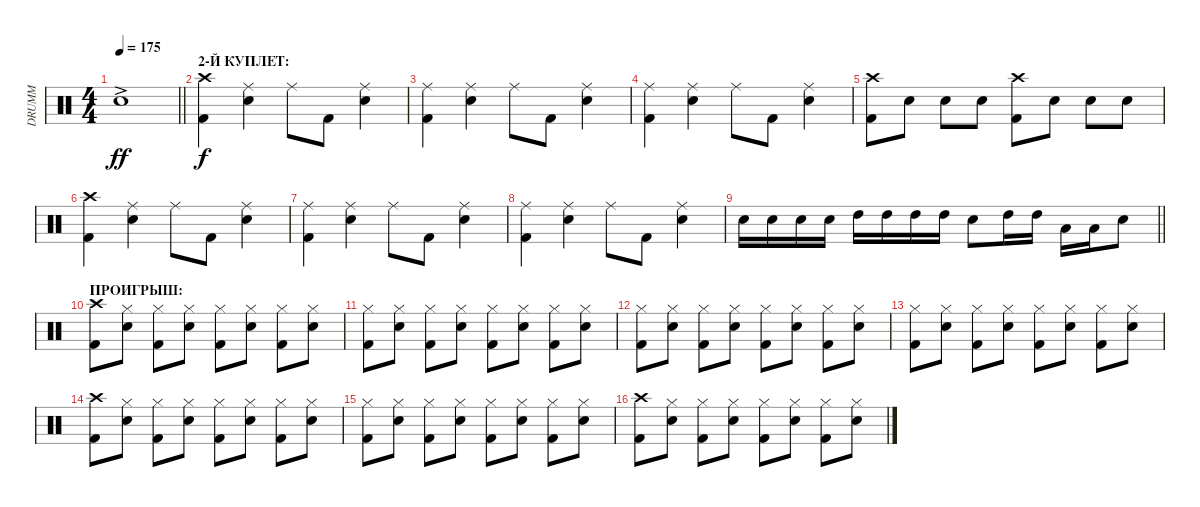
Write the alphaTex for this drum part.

\track ("DRUMM" "DRUMM") {instrument percussion}
\staff {score}
\articulation defaults
\ts (4 4)
\tempo 175
\clef neutral
\barLineRight lightlight
\ks c "Electric Snare (hit)"{ac}.1{dy ff}
|
\section ("" "2-Й КУПЛЕТ:")
("Crash high (hit)" "Kick (hit) 2").4{dy f} ("Ride (middle)" "Electric Snare (hit)").4 "Ride (middle)".8 "Kick (hit) 2".8 ("Electric Snare (hit)" "Ride (middle)").4 |
("Ride (middle)" "Kick (hit) 2").4 ("Electric Snare (hit)" "Ride (middle)").4 "Ride (middle)".8 "Kick (hit) 2".8 ("Electric Snare (hit)" "Ride (middle)").4 |
("Ride (middle)" "Kick (hit) 2").4 ("Electric Snare (hit)" "Ride (middle)").4 "Ride (middle)".8 "Kick (hit) 2".8 ("Electric Snare (hit)" "Ride (middle)").4 |
("Crash high (hit)" "Kick (hit) 2").8 "Electric Snare (hit)".8 "Electric Snare (hit)".8 "Electric Snare (hit)".8 ("Crash high (hit)" "Kick (hit) 2").8 "Electric Snare (hit)".8 "Electric Snare (hit)".8 "Electric Snare (hit)".8 |
("Crash high (hit)" "Kick (hit) 2").4 ("Ride (middle)" "Electric Snare (hit)").4 "Ride (middle)".8 "Kick (hit) 2".8 ("Electric Snare (hit)" "Ride (middle)").4 |
("Ride (middle)" "Kick (hit) 2").4 ("Electric Snare (hit)" "Ride (middle)").4 "Ride (middle)".8 "Kick (hit) 2".8 ("Electric Snare (hit)" "Ride (middle)").4 |
("Ride (middle)" "Kick (hit) 2").4 ("Electric Snare (hit)" "Ride (middle)").4 "Ride (middle)".8 "Kick (hit) 2".8 ("Electric Snare (hit)" "Ride (middle)").4 |
\barLineRight lightlight "Electric Snare (hit)".16 "Electric Snare (hit)".16 "Electric Snare (hit)".16 "Electric Snare (hit)".16 "High Tom (hit)".16 "High Tom (hit)".16 "High Tom (hit)".16 "High Tom (hit)".16 "Electric Snare (hit)".8 "High Tom (hit)".16 "High Tom (hit)".16 "Low Tom (hit)".16 "Low Tom (hit)".16 "Electric Snare (hit)".8
|
\section ("" "ПРОИГРЫШ:")
("Crash high (hit)" "Kick (hit) 2").8 ("Hi-Hat (closed)" "Electric Snare (hit)").8 ("Hi-Hat (closed)" "Kick (hit) 2").8 ("Hi-Hat (closed)" "Electric Snare (hit)").8 ("Hi-Hat (closed)" "Kick (hit) 2").8 ("Hi-Hat (closed)" "Electric Snare (hit)").8 ("Hi-Hat (closed)" "Kick (hit) 2").8 ("Hi-Hat (closed)" "Electric Snare (hit)").8 |
("Hi-Hat (closed)" "Kick (hit) 2").8 ("Hi-Hat (closed)" "Electric Snare (hit)").8 ("Hi-Hat (closed)" "Kick (hit) 2").8 ("Hi-Hat (closed)" "Electric Snare (hit)").8 ("Hi-Hat (closed)" "Kick (hit) 2").8 ("Hi-Hat (closed)" "Electric Snare (hit)").8 ("Hi-Hat (closed)" "Kick (hit) 2").8 ("Hi-Hat (closed)" "Electric Snare (hit)").8 |
("Hi-Hat (closed)" "Kick (hit) 2").8 ("Hi-Hat (closed)" "Electric Snare (hit)").8 ("Hi-Hat (closed)" "Kick (hit) 2").8 ("Hi-Hat (closed)" "Electric Snare (hit)").8 ("Hi-Hat (closed)" "Kick (hit) 2").8 ("Hi-Hat (closed)" "Electric Snare (hit)").8 ("Hi-Hat (closed)" "Kick (hit) 2").8 ("Hi-Hat (closed)" "Electric Snare (hit)").8 |
("Hi-Hat (closed)" "Kick (hit) 2").8 ("Hi-Hat (closed)" "Electric Snare (hit)").8 ("Hi-Hat (closed)" "Kick (hit) 2").8 ("Hi-Hat (closed)" "Electric Snare (hit)").8 ("Hi-Hat (closed)" "Kick (hit) 2").8 ("Hi-Hat (closed)" "Electric Snare (hit)").8 ("Hi-Hat (closed)" "Kick (hit) 2").8 ("Hi-Hat (closed)" "Electric Snare (hit)").8 |
("Crash high (hit)" "Kick (hit) 2").8 ("Hi-Hat (closed)" "Electric Snare (hit)").8 ("Hi-Hat (closed)" "Kick (hit) 2").8 ("Hi-Hat (closed)" "Electric Snare (hit)").8 ("Hi-Hat (closed)" "Kick (hit) 2").8 ("Hi-Hat (closed)" "Electric Snare (hit)").8 ("Hi-Hat (closed)" "Kick (hit) 2").8 ("Hi-Hat (closed)" "Electric Snare (hit)").8 |
("Hi-Hat (closed)" "Kick (hit) 2").8 ("Hi-Hat (closed)" "Electric Snare (hit)").8 ("Hi-Hat (closed)" "Kick (hit) 2").8 ("Hi-Hat (closed)" "Electric Snare (hit)").8 ("Hi-Hat (closed)" "Kick (hit) 2").8 ("Hi-Hat (closed)" "Electric Snare (hit)").8 ("Hi-Hat (closed)" "Kick (hit) 2").8 ("Hi-Hat (closed)" "Electric Snare (hit)").8 |
("Crash high (hit)" "Kick (hit) 2").8 ("Hi-Hat (closed)" "Electric Snare (hit)").8 ("Hi-Hat (closed)" "Kick (hit) 2").8 ("Hi-Hat (closed)" "Electric Snare (hit)").8 ("Hi-Hat (closed)" "Kick (hit) 2").8 ("Hi-Hat (closed)" "Electric Snare (hit)").8 ("Hi-Hat (closed)" "Kick (hit) 2").8 ("Hi-Hat (closed)" "Electric Snare (hit)").8
